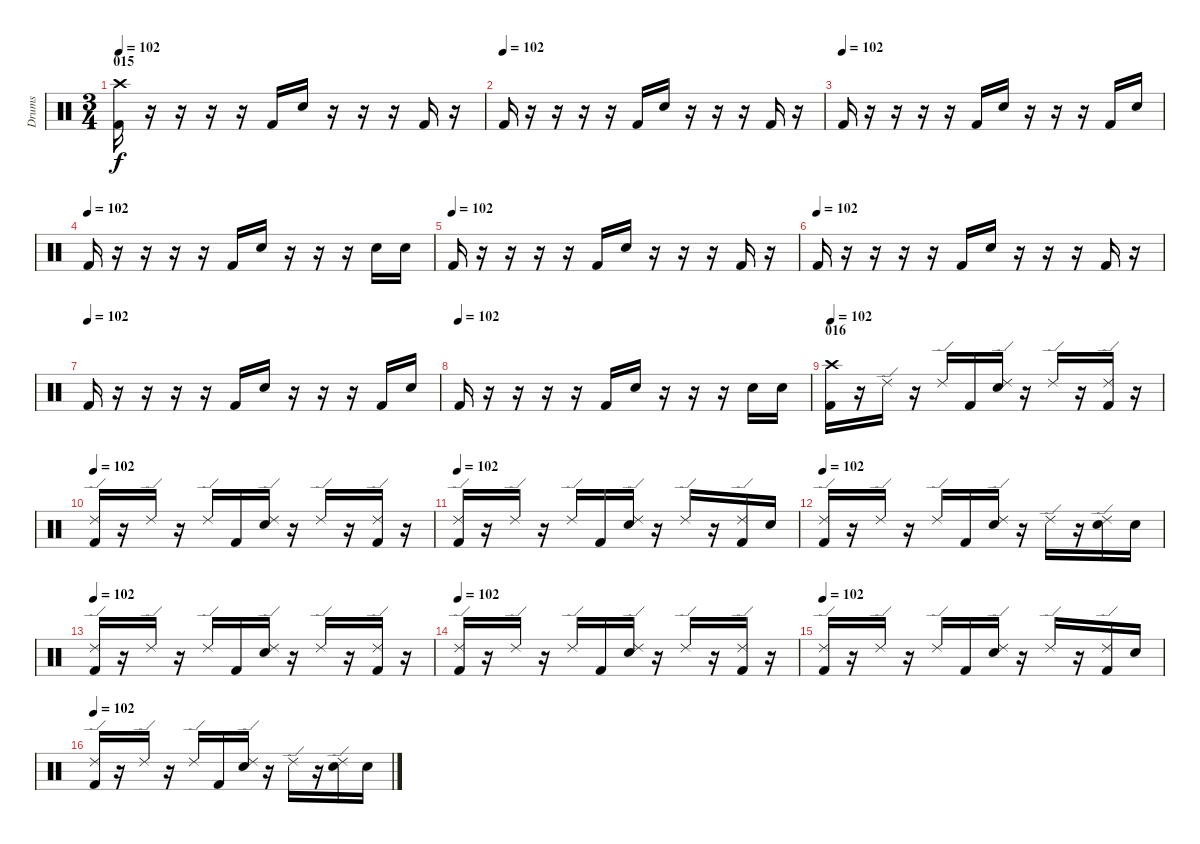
\track ("Drums" "Drums") {instrument percussion}
\staff {score}
\articulation defaults
\ts (3 4)
\section ("" "015")
\tempo 102
\clef neutral
\ks c
("Kick (hit) 2" "Crash high (hit)").16{dy f} r.16 r.16 r.16 r.16 "Kick (hit) 2".16 "Electric Snare (hit)".16 r.16 r.16 r.16 "Kick (hit) 2".16 r.16 |
\tempo (102)
"Kick (hit) 2".16 r.16 r.16 r.16 r.16 "Kick (hit) 2".16 "Electric Snare (hit)".16 r.16 r.16 r.16 "Kick (hit) 2".16 r.16 |
\tempo (102)
"Kick (hit) 2".16 r.16 r.16 r.16 r.16 "Kick (hit) 2".16 "Electric Snare (hit)".16 r.16 r.16 r.16 "Kick (hit) 2".16 "Electric Snare (hit)".16 |
\tempo (102)
"Kick (hit) 2".16 r.16 r.16 r.16 r.16 "Kick (hit) 2".16 "Electric Snare (hit)".16 r.16 r.16 r.16 "Electric Snare (hit)".16 "Electric Snare (hit)".16 |
\tempo (102)
"Kick (hit) 2".16 r.16 r.16 r.16 r.16 "Kick (hit) 2".16 "Electric Snare (hit)".16 r.16 r.16 r.16 "Kick (hit) 2".16 r.16 |
\tempo (102)
"Kick (hit) 2".16 r.16 r.16 r.16 r.16 "Kick (hit) 2".16 "Electric Snare (hit)".16 r.16 r.16 r.16 "Kick (hit) 2".16 r.16 |
\tempo (102)
"Kick (hit) 2".16 r.16 r.16 r.16 r.16 "Kick (hit) 2".16 "Electric Snare (hit)".16 r.16 r.16 r.16 "Kick (hit) 2".16 "Electric Snare (hit)".16 |
\tempo (102)
"Kick (hit) 2".16 r.16 r.16 r.16 r.16 "Kick (hit) 2".16 "Electric Snare (hit)".16 r.16 r.16 r.16 "Electric Snare (hit)".16 "Electric Snare (hit)".16 |
\section ("" "016")
\tempo 102
("Kick (hit) 2" "Crash high (hit)").16 r.16 "Ride (edge) 2".16 r.16 "Ride (edge) 2".16 "Kick (hit) 2".16 ("Electric Snare (hit)" "Ride (edge) 2").16 r.16 "Ride (edge) 2".16 r.16 ("Kick (hit) 2" "Ride (edge) 2").16 r.16 |
\tempo 102
("Kick (hit) 2" "Ride (edge) 2").16 r.16 "Ride (edge) 2".16 r.16 "Ride (edge) 2".16 "Kick (hit) 2".16 ("Electric Snare (hit)" "Ride (edge) 2").16 r.16 "Ride (edge) 2".16 r.16 ("Kick (hit) 2" "Ride (edge) 2").16 r.16 |
\tempo 102
("Kick (hit) 2" "Ride (edge) 2").16 r.16 "Ride (edge) 2".16 r.16 "Ride (edge) 2".16 "Kick (hit) 2".16 ("Electric Snare (hit)" "Ride (edge) 2").16 r.16 "Ride (edge) 2".16 r.16 ("Kick (hit) 2" "Ride (edge) 2").16 "Electric Snare (hit)".16 |
\tempo 102
("Kick (hit) 2" "Ride (edge) 2").16 r.16 "Ride (edge) 2".16 r.16 "Ride (edge) 2".16 "Kick (hit) 2".16 ("Electric Snare (hit)" "Ride (edge) 2").16 r.16 "Ride (edge) 2".16 r.16 ("Electric Snare (hit)" "Ride (edge) 2").16 "Electric Snare (hit)".16 |
\tempo 102
("Kick (hit) 2" "Ride (edge) 2").16 r.16 "Ride (edge) 2".16 r.16 "Ride (edge) 2".16 "Kick (hit) 2".16 ("Electric Snare (hit)" "Ride (edge) 2").16 r.16 "Ride (edge) 2".16 r.16 ("Kick (hit) 2" "Ride (edge) 2").16 r.16 |
\tempo 102
("Kick (hit) 2" "Ride (edge) 2").16 r.16 "Ride (edge) 2".16 r.16 "Ride (edge) 2".16 "Kick (hit) 2".16 ("Electric Snare (hit)" "Ride (edge) 2").16 r.16 "Ride (edge) 2".16 r.16 ("Kick (hit) 2" "Ride (edge) 2").16 r.16 |
\tempo 102
("Kick (hit) 2" "Ride (edge) 2").16 r.16 "Ride (edge) 2".16 r.16 "Ride (edge) 2".16 "Kick (hit) 2".16 ("Electric Snare (hit)" "Ride (edge) 2").16 r.16 "Ride (edge) 2".16 r.16 ("Kick (hit) 2" "Ride (edge) 2").16 "Electric Snare (hit)".16 |
\tempo 102
("Kick (hit) 2" "Ride (edge) 2").16 r.16 "Ride (edge) 2".16 r.16 "Ride (edge) 2".16 "Kick (hit) 2".16 ("Electric Snare (hit)" "Ride (edge) 2").16 r.16 "Ride (edge) 2".16 r.16 ("Electric Snare (hit)" "Ride (edge) 2").16 "Electric Snare (hit)".16
